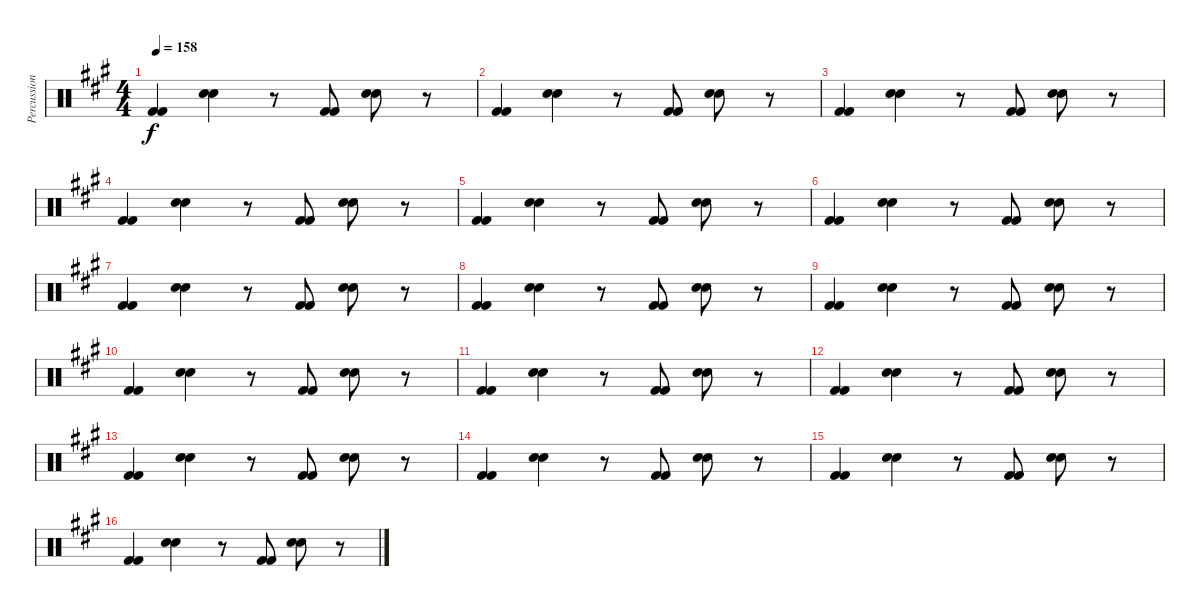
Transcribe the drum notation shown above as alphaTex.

\track ("Percussion" "Percussion") {instrument percussion}
\staff {score}
\articulation defaults
\ts (4 4)
\tempo 158
\clef neutral
\ks a
("Kick (hit) 2" "Kick (hit) 2").4{dy f} ("Snare (hit) 2" "Snare (hit) 2").4 r.8 ("Kick (hit) 2" "Kick (hit) 2").8 ("Snare (hit) 2" "Snare (hit) 2").8 r.8 |
("Kick (hit) 2" "Kick (hit) 2").4 ("Snare (hit) 2" "Snare (hit) 2").4 r.8 ("Kick (hit) 2" "Kick (hit) 2").8 ("Snare (hit) 2" "Snare (hit) 2").8 r.8 |
("Kick (hit) 2" "Kick (hit) 2").4 ("Snare (hit) 2" "Snare (hit) 2").4 r.8 ("Kick (hit) 2" "Kick (hit) 2").8 ("Snare (hit) 2" "Snare (hit) 2").8 r.8 |
("Kick (hit) 2" "Kick (hit) 2").4 ("Snare (hit) 2" "Snare (hit) 2").4 r.8 ("Kick (hit) 2" "Kick (hit) 2").8 ("Snare (hit) 2" "Snare (hit) 2").8 r.8 |
("Kick (hit) 2" "Kick (hit) 2").4 ("Snare (hit) 2" "Snare (hit) 2").4 r.8 ("Kick (hit) 2" "Kick (hit) 2").8 ("Snare (hit) 2" "Snare (hit) 2").8 r.8 |
("Kick (hit) 2" "Kick (hit) 2").4 ("Snare (hit) 2" "Snare (hit) 2").4 r.8 ("Kick (hit) 2" "Kick (hit) 2").8 ("Snare (hit) 2" "Snare (hit) 2").8 r.8 |
("Kick (hit) 2" "Kick (hit) 2").4 ("Snare (hit) 2" "Snare (hit) 2").4 r.8 ("Kick (hit) 2" "Kick (hit) 2").8 ("Snare (hit) 2" "Snare (hit) 2").8 r.8 |
("Kick (hit) 2" "Kick (hit) 2").4 ("Snare (hit) 2" "Snare (hit) 2").4 r.8 ("Kick (hit) 2" "Kick (hit) 2").8 ("Snare (hit) 2" "Snare (hit) 2").8 r.8 |
("Kick (hit) 2" "Kick (hit) 2").4 ("Snare (hit) 2" "Snare (hit) 2").4 r.8 ("Kick (hit) 2" "Kick (hit) 2").8 ("Snare (hit) 2" "Snare (hit) 2").8 r.8 |
("Kick (hit) 2" "Kick (hit) 2").4 ("Snare (hit) 2" "Snare (hit) 2").4 r.8 ("Kick (hit) 2" "Kick (hit) 2").8 ("Snare (hit) 2" "Snare (hit) 2").8 r.8 |
("Kick (hit) 2" "Kick (hit) 2").4 ("Snare (hit) 2" "Snare (hit) 2").4 r.8 ("Kick (hit) 2" "Kick (hit) 2").8 ("Snare (hit) 2" "Snare (hit) 2").8 r.8 |
("Kick (hit) 2" "Kick (hit) 2").4 ("Snare (hit) 2" "Snare (hit) 2").4 r.8 ("Kick (hit) 2" "Kick (hit) 2").8 ("Snare (hit) 2" "Snare (hit) 2").8 r.8 |
("Kick (hit) 2" "Kick (hit) 2").4 ("Snare (hit) 2" "Snare (hit) 2").4 r.8 ("Kick (hit) 2" "Kick (hit) 2").8 ("Snare (hit) 2" "Snare (hit) 2").8 r.8 |
("Kick (hit) 2" "Kick (hit) 2").4 ("Snare (hit) 2" "Snare (hit) 2").4 r.8 ("Kick (hit) 2" "Kick (hit) 2").8 ("Snare (hit) 2" "Snare (hit) 2").8 r.8 |
("Kick (hit) 2" "Kick (hit) 2").4 ("Snare (hit) 2" "Snare (hit) 2").4 r.8 ("Kick (hit) 2" "Kick (hit) 2").8 ("Snare (hit) 2" "Snare (hit) 2").8 r.8 |
("Kick (hit) 2" "Kick (hit) 2").4 ("Snare (hit) 2" "Snare (hit) 2").4 r.8 ("Kick (hit) 2" "Kick (hit) 2").8 ("Snare (hit) 2" "Snare (hit) 2").8 r.8
